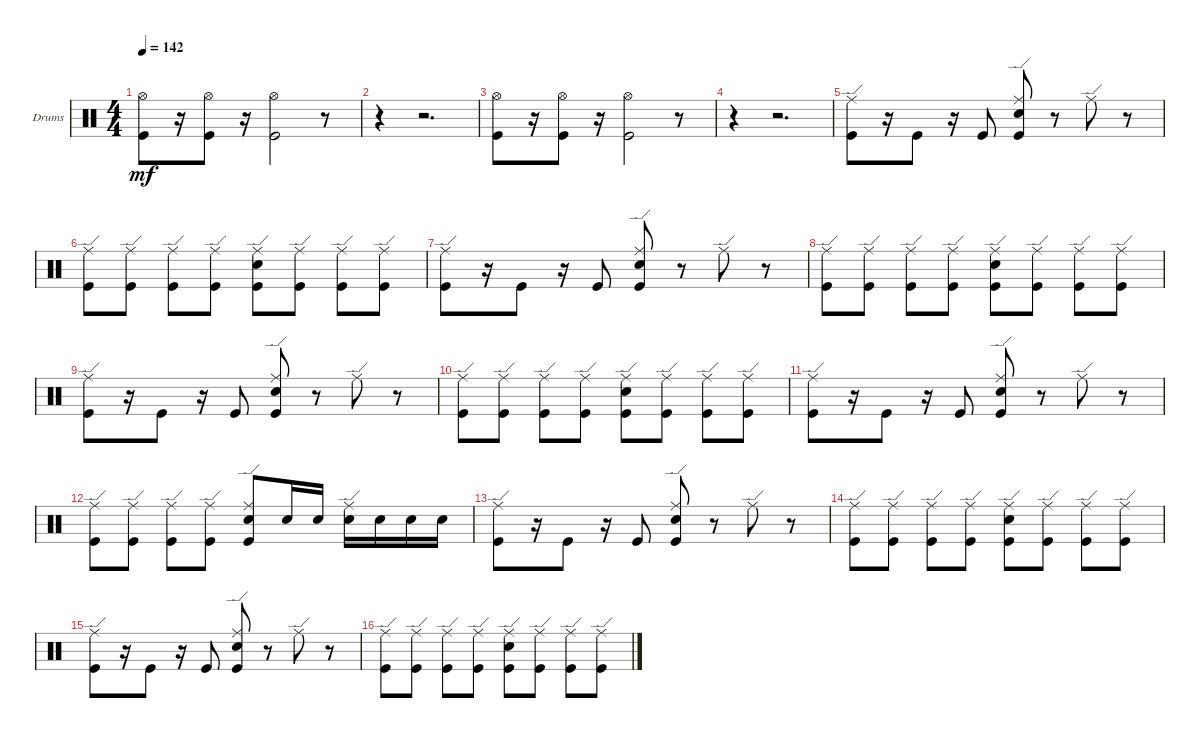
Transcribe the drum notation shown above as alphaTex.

\bracketExtendMode groupsimilarinstruments
\firstSystemTrackNameOrientation horizontal
\otherSystemsTrackNameOrientation horizontal
\track ("Drumkit" "Drums") {instrument percussion}
\staff {score}
\articulation defaults
\ts (4 4)
\tempo 142
\clef neutral
\ks c
("Kick (hit)" "Hi-Hat (open)").8{dy mf} r.16 ("Kick (hit)" "Hi-Hat (open)").8 r.16 ("Kick (hit)" "Hi-Hat (open)").2 r.8 |
r.4 r.2{d} |
("Kick (hit)" "Hi-Hat (open)").8 r.16 ("Kick (hit)" "Hi-Hat (open)").8 r.16 ("Kick (hit)" "Hi-Hat (open)").2 r.8 |
r.4 r.2{d} |
("Kick (hit)" "Ride (edge)").8 r.16 "Kick (hit)".8 r.16 "Kick (hit)".8 ("Kick (hit)" "Snare (hit) 2" "Ride (edge)").8 r.8 "Ride (edge)".8 r.8 |
("Kick (hit)" "Ride (edge)").8 ("Kick (hit)" "Ride (edge)").8 ("Kick (hit)" "Ride (edge)").8 ("Kick (hit)" "Ride (edge)").8 ("Kick (hit)" "Ride (edge)" "Snare (hit) 2").8 ("Kick (hit)" "Ride (edge)").8 ("Kick (hit)" "Ride (edge)").8 ("Kick (hit)" "Ride (edge)").8 |
("Kick (hit)" "Ride (edge)").8 r.16 "Kick (hit)".8 r.16 "Kick (hit)".8 ("Kick (hit)" "Snare (hit) 2" "Ride (edge)").8 r.8 "Ride (edge)".8 r.8 |
("Kick (hit)" "Ride (edge)").8 ("Kick (hit)" "Ride (edge)").8 ("Kick (hit)" "Ride (edge)").8 ("Kick (hit)" "Ride (edge)").8 ("Kick (hit)" "Ride (edge)" "Snare (hit) 2").8 ("Kick (hit)" "Ride (edge)").8 ("Kick (hit)" "Ride (edge)").8 ("Kick (hit)" "Ride (edge)").8 |
("Kick (hit)" "Ride (edge)").8 r.16 "Kick (hit)".8 r.16 "Kick (hit)".8 ("Kick (hit)" "Snare (hit) 2" "Ride (edge)").8 r.8 "Ride (edge)".8 r.8 |
("Kick (hit)" "Ride (edge)").8 ("Kick (hit)" "Ride (edge)").8 ("Kick (hit)" "Ride (edge)").8 ("Kick (hit)" "Ride (edge)").8 ("Kick (hit)" "Ride (edge)" "Snare (hit) 2").8 ("Kick (hit)" "Ride (edge)").8 ("Kick (hit)" "Ride (edge)").8 ("Kick (hit)" "Ride (edge)").8 |
("Kick (hit)" "Ride (edge)").8 r.16 "Kick (hit)".8 r.16 "Kick (hit)".8 ("Kick (hit)" "Snare (hit) 2" "Ride (edge)").8 r.8 "Ride (edge)".8 r.8 |
("Kick (hit)" "Ride (edge)").8 ("Kick (hit)" "Ride (edge)").8 ("Kick (hit)" "Ride (edge)").8 ("Kick (hit)" "Ride (edge)").8 ("Kick (hit)" "Ride (edge)" "Snare (hit) 2").8 "Snare (hit) 2".16 "Snare (hit) 2".16 ("Snare (hit) 2" "Ride (edge)").16 "Snare (hit) 2".16 "Snare (hit) 2".16 "Snare (hit) 2".16 |
("Kick (hit)" "Ride (edge)").8 r.16 "Kick (hit)".8 r.16 "Kick (hit)".8 ("Kick (hit)" "Snare (hit) 2" "Ride (edge)").8 r.8 "Ride (edge)".8 r.8 |
("Kick (hit)" "Ride (edge)").8 ("Kick (hit)" "Ride (edge)").8 ("Kick (hit)" "Ride (edge)").8 ("Kick (hit)" "Ride (edge)").8 ("Kick (hit)" "Ride (edge)" "Snare (hit) 2").8 ("Kick (hit)" "Ride (edge)").8 ("Kick (hit)" "Ride (edge)").8 ("Kick (hit)" "Ride (edge)").8 |
("Kick (hit)" "Ride (edge)").8 r.16 "Kick (hit)".8 r.16 "Kick (hit)".8 ("Kick (hit)" "Snare (hit) 2" "Ride (edge)").8 r.8 "Ride (edge)".8 r.8 |
("Kick (hit)" "Ride (edge)").8 ("Kick (hit)" "Ride (edge)").8 ("Kick (hit)" "Ride (edge)").8 ("Kick (hit)" "Ride (edge)").8 ("Kick (hit)" "Ride (edge)" "Snare (hit) 2").8 ("Kick (hit)" "Ride (edge)").8 ("Kick (hit)" "Ride (edge)").8 ("Kick (hit)" "Ride (edge)").8
